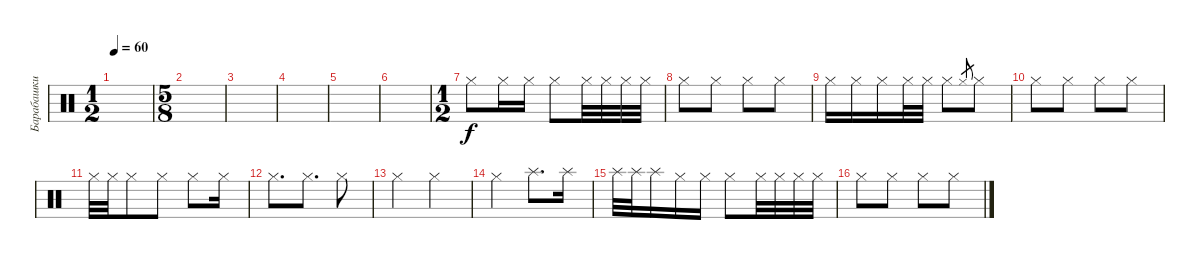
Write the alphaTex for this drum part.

\track ("Барабашки High" "Барабашки ") {instrument percussion}
\staff {score}
\articulation defaults
\ts (1 2)
\tempo 60
\clef neutral
\ks c
|
\ts (5 8)
|
|
|
|
|
\ts (1 2)
"Hi-Hat (closed)".8{volume 1} "Hi-Hat (closed)".16 "Hi-Hat (closed)".16 "Hi-Hat (closed)".8 "Hi-Hat (closed)".32 "Hi-Hat (closed)".32 "Hi-Hat (closed)".32 "Hi-Hat (closed)".32 |
"Hi-Hat (closed)".8 "Hi-Hat (closed)".8 "Hi-Hat (closed)".8 "Hi-Hat (closed)".8 |
"Hi-Hat (closed)".16 "Hi-Hat (closed)".16 "Hi-Hat (closed)".16 "Hi-Hat (closed)".32 "Hi-Hat (closed)".32 "Hi-Hat (closed)".8 "Hi-Hat (closed)".8{gr} "Hi-Hat (closed)".8 |
"Hi-Hat (closed)".8 "Hi-Hat (closed)".8 "Hi-Hat (closed)".8 "Hi-Hat (closed)".8 |
"Hi-Hat (closed)".32 "Hi-Hat (closed)".32 "Hi-Hat (closed)".8 "Hi-Hat (closed)".8 "Hi-Hat (closed)".8 "Hi-Hat (closed)".16 |
"Hi-Hat (closed)".8{d} "Hi-Hat (closed)".8{d} "Hi-Hat (closed)".8 |
"Hi-Hat (closed)".4 "Hi-Hat (closed)".4 |
"Hi-Hat (closed)".4 "Splash (hit)".8{d} "Splash (hit)".16 |
"Splash (hit)".32 "Splash (hit)".32 "Splash (hit)".16 "Hi-Hat (closed)".16 "Hi-Hat (closed)".16 "Hi-Hat (closed)".8 "Hi-Hat (closed)".32 "Hi-Hat (closed)".32 "Hi-Hat (closed)".32 "Hi-Hat (closed)".32 |
"Hi-Hat (closed)".8 "Hi-Hat (closed)".8 "Hi-Hat (closed)".8 "Hi-Hat (closed)".8
